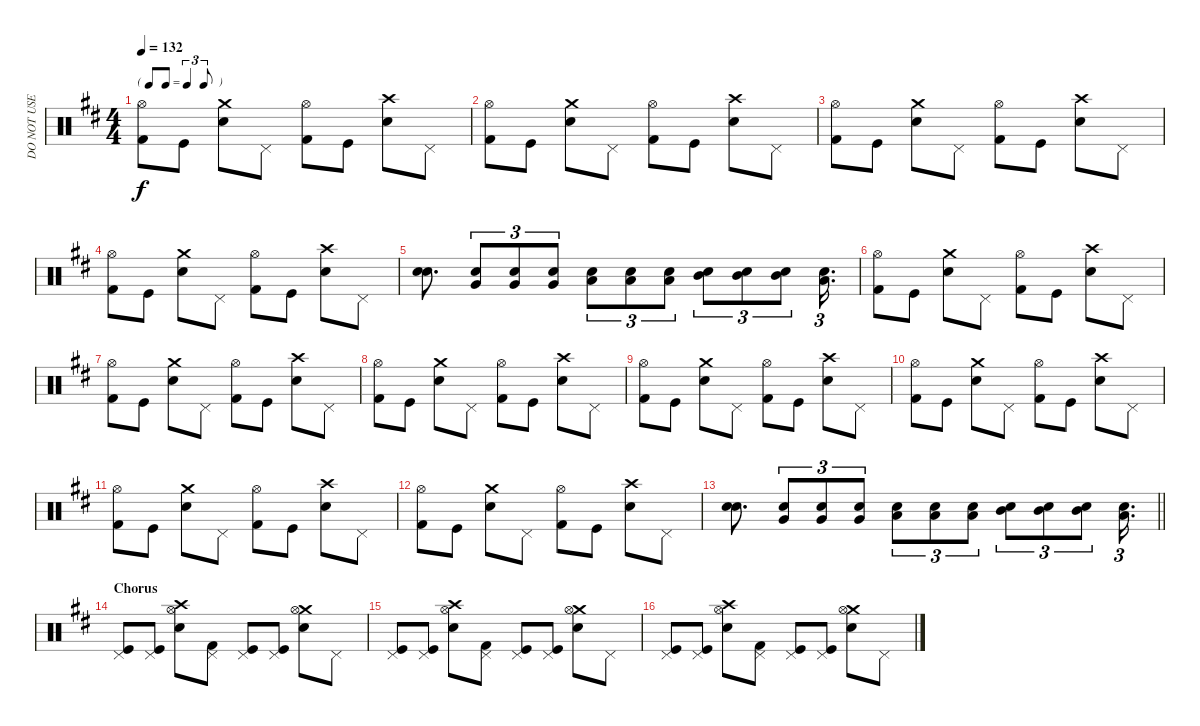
\track ("DO NOT USE" "DO NOT USE") {solo instrument percussion}
\staff {score}
\articulation defaults
\ts (4 4)
\tf triplet8th
\tempo 132
\clef neutral
\ks d
("Hi-Hat (open)" "Kick (hit) 2").8{dy f} "Kick (hit)".8 ("Crash medium (hit)" "Electric Snare (hit)").8 "Pedal Hi-Hat (hit)".8 ("Hi-Hat (open)" "Kick (hit) 2").8 "Kick (hit)".8 ("Crash high (hit)" "Electric Snare (hit)").8 "Pedal Hi-Hat (hit)".8 |
("Hi-Hat (open)" "Kick (hit) 2").8 "Kick (hit)".8 ("Crash medium (hit)" "Electric Snare (hit)").8 "Pedal Hi-Hat (hit)".8 ("Hi-Hat (open)" "Kick (hit) 2").8 "Kick (hit)".8 ("Crash high (hit)" "Electric Snare (hit)").8 "Pedal Hi-Hat (hit)".8 |
("Hi-Hat (open)" "Kick (hit) 2").8 "Kick (hit)".8 ("Crash medium (hit)" "Electric Snare (hit)").8 "Pedal Hi-Hat (hit)".8 ("Hi-Hat (open)" "Kick (hit) 2").8 "Kick (hit)".8 ("Crash high (hit)" "Electric Snare (hit)").8 "Pedal Hi-Hat (hit)".8 |
("Hi-Hat (open)" "Kick (hit) 2").8 "Kick (hit)".8 ("Crash medium (hit)" "Electric Snare (hit)").8 "Pedal Hi-Hat (hit)".8 ("Hi-Hat (open)" "Kick (hit) 2").8 "Kick (hit)".8 ("Crash high (hit)" "Electric Snare (hit)").8 "Pedal Hi-Hat (hit)".8 |
("Snare (hit) 2" "Electric Snare (hit)").8{d} ("Electric Snare (hit)" "Very Low Tom (hit)").8{tu (3 2)} ("Electric Snare (hit)" "Very Low Tom (hit)").8{tu (3 2)} ("Electric Snare (hit)" "Very Low Tom (hit)").8{tu (3 2)} ("Snare (hit) 2" "Low Tom (hit)").8{tu (3 2)} ("Snare (hit) 2" "Low Tom (hit)").8{tu (3 2)} ("Snare (hit) 2" "Low Tom (hit)").8{tu (3 2)} ("Electric Snare (hit)" "Mid Tom (hit)").8{tu (3 2)} ("Electric Snare (hit)" "Mid Tom (hit)").8{tu (3 2)} ("Electric Snare (hit)" "Mid Tom (hit)").8{tu (3 2)} ("Electric Snare (hit)" "Low Floor Tom (hit)").16{d tu (3 2)} |
("Hi-Hat (open)" "Kick (hit) 2").8 "Kick (hit)".8 ("Crash medium (hit)" "Electric Snare (hit)").8 "Pedal Hi-Hat (hit)".8 ("Hi-Hat (open)" "Kick (hit) 2").8 "Kick (hit)".8 ("Crash high (hit)" "Electric Snare (hit)").8 "Pedal Hi-Hat (hit)".8 |
("Hi-Hat (open)" "Kick (hit) 2").8 "Kick (hit)".8 ("Crash medium (hit)" "Electric Snare (hit)").8 "Pedal Hi-Hat (hit)".8 ("Hi-Hat (open)" "Kick (hit) 2").8 "Kick (hit)".8 ("Crash high (hit)" "Electric Snare (hit)").8 "Pedal Hi-Hat (hit)".8 |
("Hi-Hat (open)" "Kick (hit) 2").8 "Kick (hit)".8 ("Crash medium (hit)" "Electric Snare (hit)").8 "Pedal Hi-Hat (hit)".8 ("Hi-Hat (open)" "Kick (hit) 2").8 "Kick (hit)".8 ("Crash high (hit)" "Electric Snare (hit)").8 "Pedal Hi-Hat (hit)".8 |
("Hi-Hat (open)" "Kick (hit) 2").8 "Kick (hit)".8 ("Crash medium (hit)" "Electric Snare (hit)").8 "Pedal Hi-Hat (hit)".8 ("Hi-Hat (open)" "Kick (hit) 2").8 "Kick (hit)".8 ("Crash high (hit)" "Electric Snare (hit)").8 "Pedal Hi-Hat (hit)".8 |
("Hi-Hat (open)" "Kick (hit) 2").8 "Kick (hit)".8 ("Crash medium (hit)" "Electric Snare (hit)").8 "Pedal Hi-Hat (hit)".8 ("Hi-Hat (open)" "Kick (hit) 2").8 "Kick (hit)".8 ("Crash high (hit)" "Electric Snare (hit)").8 "Pedal Hi-Hat (hit)".8 |
("Hi-Hat (open)" "Kick (hit) 2").8 "Kick (hit)".8 ("Crash medium (hit)" "Electric Snare (hit)").8 "Pedal Hi-Hat (hit)".8 ("Hi-Hat (open)" "Kick (hit) 2").8 "Kick (hit)".8 ("Crash high (hit)" "Electric Snare (hit)").8 "Pedal Hi-Hat (hit)".8 |
("Hi-Hat (open)" "Kick (hit) 2").8 "Kick (hit)".8 ("Crash medium (hit)" "Electric Snare (hit)").8 "Pedal Hi-Hat (hit)".8 ("Hi-Hat (open)" "Kick (hit) 2").8 "Kick (hit)".8 ("Crash high (hit)" "Electric Snare (hit)").8 "Pedal Hi-Hat (hit)".8 |
\barLineRight lightlight
("Snare (hit) 2" "Electric Snare (hit)").8{d} ("Electric Snare (hit)" "Very Low Tom (hit)").8{tu (3 2)} ("Electric Snare (hit)" "Very Low Tom (hit)").8{tu (3 2)} ("Electric Snare (hit)" "Very Low Tom (hit)").8{tu (3 2)} ("Snare (hit) 2" "Low Tom (hit)").8{tu (3 2)} ("Snare (hit) 2" "Low Tom (hit)").8{tu (3 2)} ("Snare (hit) 2" "Low Tom (hit)").8{tu (3 2)} ("Electric Snare (hit)" "Mid Tom (hit)").8{tu (3 2)} ("Electric Snare (hit)" "Mid Tom (hit)").8{tu (3 2)} ("Electric Snare (hit)" "Mid Tom (hit)").8{tu (3 2)} ("Electric Snare (hit)" "Low Floor Tom (hit)").16{d tu (3 2)} |
\section ("" "Chorus")
("Kick (hit)" "Pedal Hi-Hat (hit)").8 ("Kick (hit)" "Pedal Hi-Hat (hit)").8 ("Crash high (hit)" "Snare (hit) 2" "Hi-Hat (open)").8 ("Kick (hit) 2" "Pedal Hi-Hat (hit)").8 ("Kick (hit)" "Pedal Hi-Hat (hit)").8 ("Kick (hit)" "Pedal Hi-Hat (hit)").8 ("Crash medium (hit)" "Electric Snare (hit)" "Hi-Hat (open)").8 "Pedal Hi-Hat (hit)".8 |
("Kick (hit)" "Pedal Hi-Hat (hit)").8 ("Kick (hit)" "Pedal Hi-Hat (hit)").8 ("Crash high (hit)" "Snare (hit) 2" "Hi-Hat (open)").8 ("Kick (hit) 2" "Pedal Hi-Hat (hit)").8 ("Kick (hit)" "Pedal Hi-Hat (hit)").8 ("Kick (hit)" "Pedal Hi-Hat (hit)").8 ("Crash medium (hit)" "Electric Snare (hit)" "Hi-Hat (open)").8 "Pedal Hi-Hat (hit)".8 |
("Kick (hit)" "Pedal Hi-Hat (hit)").8 ("Kick (hit)" "Pedal Hi-Hat (hit)").8 ("Crash high (hit)" "Snare (hit) 2" "Hi-Hat (open)").8 ("Kick (hit) 2" "Pedal Hi-Hat (hit)").8 ("Kick (hit)" "Pedal Hi-Hat (hit)").8 ("Kick (hit)" "Pedal Hi-Hat (hit)").8 ("Crash medium (hit)" "Electric Snare (hit)" "Hi-Hat (open)").8 "Pedal Hi-Hat (hit)".8
